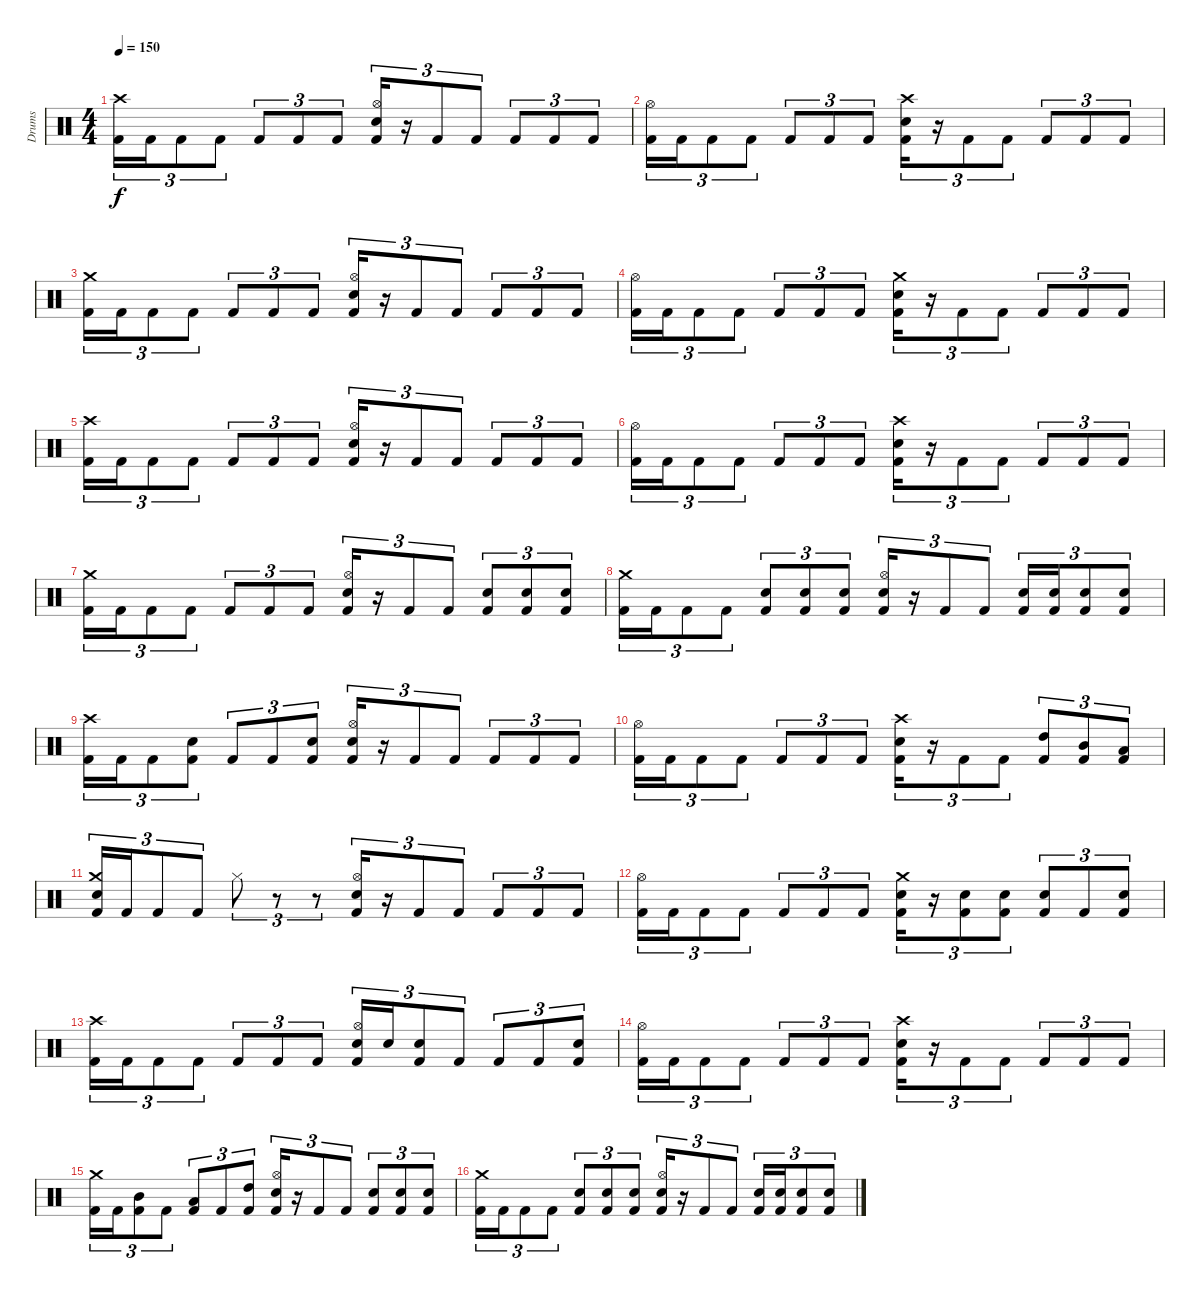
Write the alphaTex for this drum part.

\track ("Drums" "Drums") {instrument percussion}
\staff {score}
\articulation defaults
\ts (4 4)
\tempo 150
\clef neutral
\ks c
("Crash high (hit)" "Kick (hit) 2").16{tu (3 2) dy f} "Kick (hit) 2".16{tu (3 2)} "Kick (hit) 2".8{tu (3 2)} "Kick (hit) 2".8{tu (3 2)} "Kick (hit) 2".8{tu (3 2)} "Kick (hit) 2".8{tu (3 2)} "Kick (hit) 2".8{tu (3 2)} ("Hi-Hat (open)" "Snare (hit) 2" "Kick (hit) 2").16{tu (3 2)} r.16{tu (3 2)} "Kick (hit) 2".8{tu (3 2)} "Kick (hit) 2".8{tu (3 2)} "Kick (hit) 2".8{tu (3 2)} "Kick (hit) 2".8{tu (3 2)} "Kick (hit) 2".8{tu (3 2)} |
("Hi-Hat (open)" "Kick (hit) 2").16{tu (3 2)} "Kick (hit) 2".16{tu (3 2)} "Kick (hit) 2".8{tu (3 2)} "Kick (hit) 2".8{tu (3 2)} "Kick (hit) 2".8{tu (3 2)} "Kick (hit) 2".8{tu (3 2)} "Kick (hit) 2".8{tu (3 2)} ("Crash high (hit)" "Snare (hit) 2" "Kick (hit) 2").16{tu (3 2)} r.16{tu (3 2)} "Kick (hit) 2".8{tu (3 2)} "Kick (hit) 2".8{tu (3 2)} "Kick (hit) 2".8{tu (3 2)} "Kick (hit) 2".8{tu (3 2)} "Kick (hit) 2".8{tu (3 2)} |
("Crash medium (hit)" "Kick (hit) 2").16{tu (3 2)} "Kick (hit) 2".16{tu (3 2)} "Kick (hit) 2".8{tu (3 2)} "Kick (hit) 2".8{tu (3 2)} "Kick (hit) 2".8{tu (3 2)} "Kick (hit) 2".8{tu (3 2)} "Kick (hit) 2".8{tu (3 2)} ("Hi-Hat (open)" "Snare (hit) 2" "Kick (hit) 2").16{tu (3 2)} r.16{tu (3 2)} "Kick (hit) 2".8{tu (3 2)} "Kick (hit) 2".8{tu (3 2)} "Kick (hit) 2".8{tu (3 2)} "Kick (hit) 2".8{tu (3 2)} "Kick (hit) 2".8{tu (3 2)} |
("Hi-Hat (open)" "Kick (hit) 2").16{tu (3 2)} "Kick (hit) 2".16{tu (3 2)} "Kick (hit) 2".8{tu (3 2)} "Kick (hit) 2".8{tu (3 2)} "Kick (hit) 2".8{tu (3 2)} "Kick (hit) 2".8{tu (3 2)} "Kick (hit) 2".8{tu (3 2)} ("Crash medium (hit)" "Snare (hit) 2" "Kick (hit) 2").16{tu (3 2)} r.16{tu (3 2)} "Kick (hit) 2".8{tu (3 2)} "Kick (hit) 2".8{tu (3 2)} "Kick (hit) 2".8{tu (3 2)} "Kick (hit) 2".8{tu (3 2)} "Kick (hit) 2".8{tu (3 2)} |
("Crash high (hit)" "Kick (hit) 2").16{tu (3 2)} "Kick (hit) 2".16{tu (3 2)} "Kick (hit) 2".8{tu (3 2)} "Kick (hit) 2".8{tu (3 2)} "Kick (hit) 2".8{tu (3 2)} "Kick (hit) 2".8{tu (3 2)} "Kick (hit) 2".8{tu (3 2)} ("Hi-Hat (open)" "Snare (hit) 2" "Kick (hit) 2").16{tu (3 2)} r.16{tu (3 2)} "Kick (hit) 2".8{tu (3 2)} "Kick (hit) 2".8{tu (3 2)} "Kick (hit) 2".8{tu (3 2)} "Kick (hit) 2".8{tu (3 2)} "Kick (hit) 2".8{tu (3 2)} |
("Hi-Hat (open)" "Kick (hit) 2").16{tu (3 2)} "Kick (hit) 2".16{tu (3 2)} "Kick (hit) 2".8{tu (3 2)} "Kick (hit) 2".8{tu (3 2)} "Kick (hit) 2".8{tu (3 2)} "Kick (hit) 2".8{tu (3 2)} "Kick (hit) 2".8{tu (3 2)} ("Crash high (hit)" "Snare (hit) 2" "Kick (hit) 2").16{tu (3 2)} r.16{tu (3 2)} "Kick (hit) 2".8{tu (3 2)} "Kick (hit) 2".8{tu (3 2)} "Kick (hit) 2".8{tu (3 2)} "Kick (hit) 2".8{tu (3 2)} "Kick (hit) 2".8{tu (3 2)} |
("Crash medium (hit)" "Kick (hit) 2").16{tu (3 2)} "Kick (hit) 2".16{tu (3 2)} "Kick (hit) 2".8{tu (3 2)} "Kick (hit) 2".8{tu (3 2)} "Kick (hit) 2".8{tu (3 2)} "Kick (hit) 2".8{tu (3 2)} "Kick (hit) 2".8{tu (3 2)} ("Hi-Hat (open)" "Snare (hit) 2" "Kick (hit) 2").16{tu (3 2)} r.16{tu (3 2)} "Kick (hit) 2".8{tu (3 2)} "Kick (hit) 2".8{tu (3 2)} ("Electric Snare (hit)" "Kick (hit) 2").8{tu (3 2)} ("Electric Snare (hit)" "Kick (hit) 2").8{tu (3 2)} ("Electric Snare (hit)" "Kick (hit) 2").8{tu (3 2)} |
("Crash medium (hit)" "Kick (hit) 2").16{tu (3 2)} "Kick (hit) 2".16{tu (3 2)} "Kick (hit) 2".8{tu (3 2)} "Kick (hit) 2".8{tu (3 2)} ("Electric Snare (hit)" "Kick (hit) 2").8{tu (3 2)} ("Electric Snare (hit)" "Kick (hit) 2").8{tu (3 2)} ("Electric Snare (hit)" "Kick (hit) 2").8{tu (3 2)} ("Hi-Hat (open)" "Snare (hit) 2" "Kick (hit) 2").16{tu (3 2)} r.16{tu (3 2)} "Kick (hit) 2".8{tu (3 2)} "Kick (hit) 2".8{tu (3 2)} ("Electric Snare (hit)" "Kick (hit) 2").16{tu (3 2)} ("Electric Snare (hit)" "Kick (hit) 2").16{tu (3 2)} ("Electric Snare (hit)" "Kick (hit) 2").8{tu (3 2)} ("Electric Snare (hit)" "Kick (hit) 2").8{tu (3 2)} |
("Crash high (hit)" "Kick (hit) 2").16{tu (3 2)} "Kick (hit) 2".16{tu (3 2)} "Kick (hit) 2".8{tu (3 2)} ("Electric Snare (hit)" "Kick (hit) 2").8{tu (3 2)} "Kick (hit) 2".8{tu (3 2)} "Kick (hit) 2".8{tu (3 2)} ("Electric Snare (hit)" "Kick (hit) 2").8{tu (3 2)} ("Hi-Hat (open)" "Snare (hit) 2" "Kick (hit) 2").16{tu (3 2)} r.16{tu (3 2)} "Kick (hit) 2".8{tu (3 2)} "Kick (hit) 2".8{tu (3 2)} "Kick (hit) 2".8{tu (3 2)} "Kick (hit) 2".8{tu (3 2)} "Kick (hit) 2".8{tu (3 2)} |
("Hi-Hat (open)" "Kick (hit) 2").16{tu (3 2)} "Kick (hit) 2".16{tu (3 2)} "Kick (hit) 2".8{tu (3 2)} "Kick (hit) 2".8{tu (3 2)} "Kick (hit) 2".8{tu (3 2)} "Kick (hit) 2".8{tu (3 2)} "Kick (hit) 2".8{tu (3 2)} ("Crash high (hit)" "Snare (hit) 2" "Kick (hit) 2").16{tu (3 2)} r.16{tu (3 2)} "Kick (hit) 2".8{tu (3 2)} "Kick (hit) 2".8{tu (3 2)} ("High Tom (hit)" "Kick (hit) 2").8{tu (3 2)} ("Mid Tom (hit)" "Kick (hit) 2").8{tu (3 2)} ("Low Tom (hit)" "Kick (hit) 2").8{tu (3 2)} |
("Crash medium (hit)" "Electric Snare (hit)" "Kick (hit) 2").16{tu (3 2)} "Kick (hit) 2".16{tu (3 2)} "Kick (hit) 2".8{tu (3 2)} "Kick (hit) 2".8{tu (3 2)} "Hi-Hat (closed)".8{tu (3 2)} r.8{tu (3 2)} r.8{tu (3 2)} ("Hi-Hat (open)" "Snare (hit) 2" "Kick (hit) 2").16{tu (3 2)} r.16{tu (3 2)} "Kick (hit) 2".8{tu (3 2)} "Kick (hit) 2".8{tu (3 2)} "Kick (hit) 2".8{tu (3 2)} "Kick (hit) 2".8{tu (3 2)} "Kick (hit) 2".8{tu (3 2)} |
("Hi-Hat (open)" "Kick (hit) 2").16{tu (3 2)} "Kick (hit) 2".16{tu (3 2)} "Kick (hit) 2".8{tu (3 2)} "Kick (hit) 2".8{tu (3 2)} "Kick (hit) 2".8{tu (3 2)} "Kick (hit) 2".8{tu (3 2)} "Kick (hit) 2".8{tu (3 2)} ("Crash medium (hit)" "Snare (hit) 2" "Kick (hit) 2").16{tu (3 2)} r.16{tu (3 2)} ("Electric Snare (hit)" "Kick (hit) 2").8{tu (3 2)} ("Electric Snare (hit)" "Kick (hit) 2").8{tu (3 2)} ("Electric Snare (hit)" "Kick (hit) 2").8{tu (3 2)} "Kick (hit) 2".8{tu (3 2)} ("Electric Snare (hit)" "Kick (hit) 2").8{tu (3 2)} |
("Crash high (hit)" "Kick (hit) 2").16{tu (3 2)} "Kick (hit) 2".16{tu (3 2)} "Kick (hit) 2".8{tu (3 2)} "Kick (hit) 2".8{tu (3 2)} "Kick (hit) 2".8{tu (3 2)} "Kick (hit) 2".8{tu (3 2)} "Kick (hit) 2".8{tu (3 2)} ("Hi-Hat (open)" "Snare (hit) 2" "Kick (hit) 2").16{tu (3 2)} "Electric Snare (hit)".16{tu (3 2)} ("Electric Snare (hit)" "Kick (hit) 2").8{tu (3 2)} "Kick (hit) 2".8{tu (3 2)} "Kick (hit) 2".8{tu (3 2)} "Kick (hit) 2".8{tu (3 2)} ("Electric Snare (hit)" "Kick (hit) 2").8{tu (3 2)} |
("Hi-Hat (open)" "Kick (hit) 2").16{tu (3 2)} "Kick (hit) 2".16{tu (3 2)} "Kick (hit) 2".8{tu (3 2)} "Kick (hit) 2".8{tu (3 2)} "Kick (hit) 2".8{tu (3 2)} "Kick (hit) 2".8{tu (3 2)} "Kick (hit) 2".8{tu (3 2)} ("Crash high (hit)" "Snare (hit) 2" "Kick (hit) 2").16{tu (3 2)} r.16{tu (3 2)} "Kick (hit) 2".8{tu (3 2)} "Kick (hit) 2".8{tu (3 2)} "Kick (hit) 2".8{tu (3 2)} "Kick (hit) 2".8{tu (3 2)} "Kick (hit) 2".8{tu (3 2)} |
("Crash medium (hit)" "Kick (hit) 2").16{tu (3 2)} "Kick (hit) 2".16{tu (3 2)} ("Mid Tom (hit)" "Kick (hit) 2").8{tu (3 2)} "Kick (hit) 2".8{tu (3 2)} ("Low Tom (hit)" "Kick (hit) 2").8{tu (3 2)} "Kick (hit) 2".8{tu (3 2)} ("High Tom (hit)" "Kick (hit) 2").8{tu (3 2)} ("Hi-Hat (open)" "Snare (hit) 2" "Kick (hit) 2").16{tu (3 2)} r.16{tu (3 2)} "Kick (hit) 2".8{tu (3 2)} "Kick (hit) 2".8{tu (3 2)} ("Electric Snare (hit)" "Kick (hit) 2").8{tu (3 2)} ("Electric Snare (hit)" "Kick (hit) 2").8{tu (3 2)} ("Electric Snare (hit)" "Kick (hit) 2").8{tu (3 2)} |
("Crash medium (hit)" "Kick (hit) 2").16{tu (3 2)} "Kick (hit) 2".16{tu (3 2)} "Kick (hit) 2".8{tu (3 2)} "Kick (hit) 2".8{tu (3 2)} ("Electric Snare (hit)" "Kick (hit) 2").8{tu (3 2)} ("Electric Snare (hit)" "Kick (hit) 2").8{tu (3 2)} ("Electric Snare (hit)" "Kick (hit) 2").8{tu (3 2)} ("Hi-Hat (open)" "Snare (hit) 2" "Kick (hit) 2").16{tu (3 2)} r.16{tu (3 2)} "Kick (hit) 2".8{tu (3 2)} "Kick (hit) 2".8{tu (3 2)} ("Electric Snare (hit)" "Kick (hit) 2").16{tu (3 2)} ("Electric Snare (hit)" "Kick (hit) 2").16{tu (3 2)} ("Electric Snare (hit)" "Kick (hit) 2").8{tu (3 2)} ("Electric Snare (hit)" "Kick (hit) 2").8{tu (3 2)}
